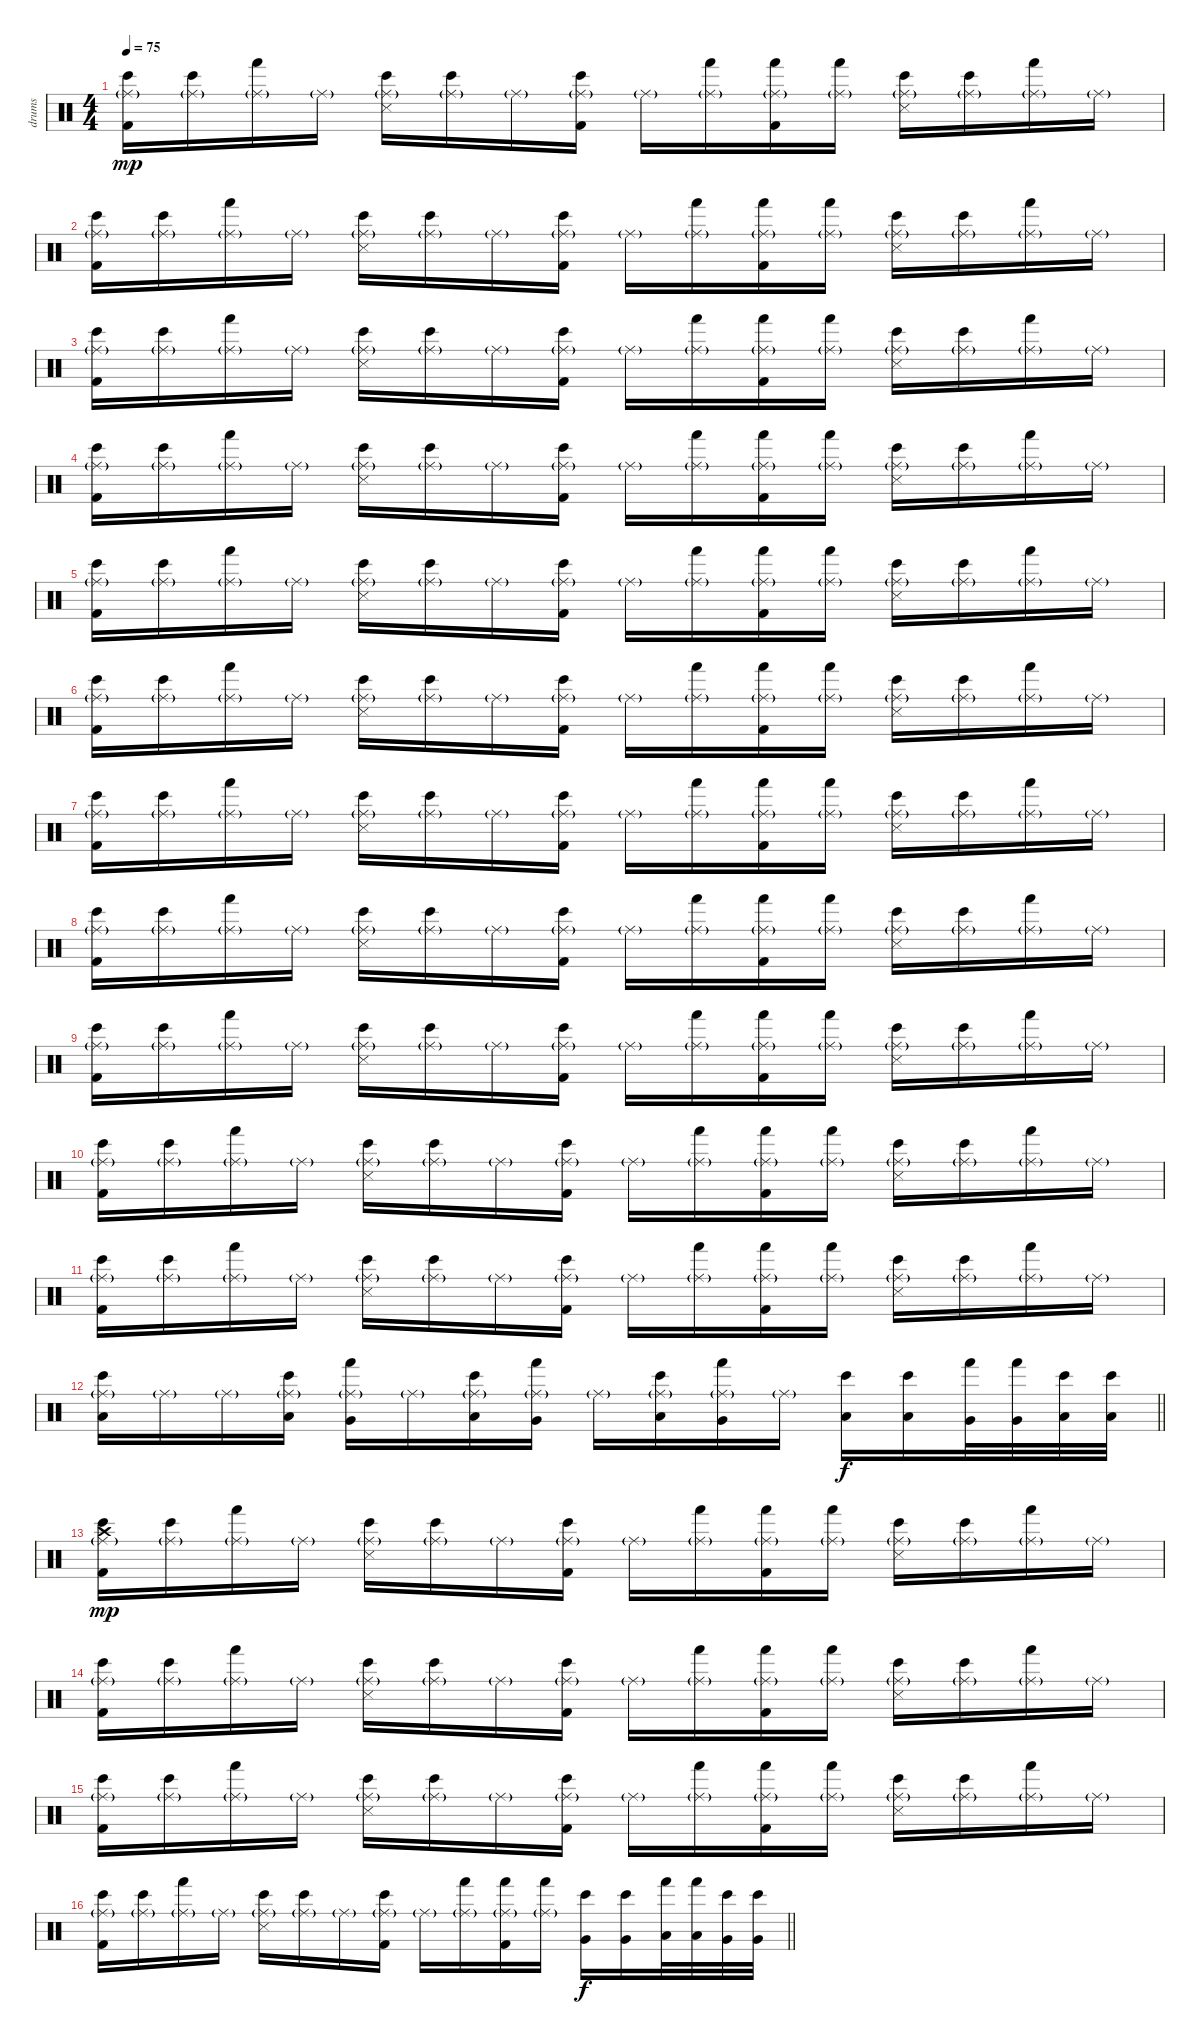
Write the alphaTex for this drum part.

\track ("drums" "drums") {instrument percussion}
\staff {score}
\articulation defaults
\ts (4 4)
\tempo 75
\clef neutral
\ks c
("Kick (hit) 2" "Bongo High (hit)" "Ride (middle)"{g}).16{dy mp} ("Bongo High (hit)" "Ride (middle)"{g}).16 ("Hand (hit)" "Ride (middle)"{g}).16 "Ride (middle)"{g}.16 ("Snare (side stick) 3" "Bongo High (hit)" "Ride (middle)"{g}).16 ("Bongo High (hit)" "Ride (middle)"{g}).16 "Ride (middle)"{g}.16 ("Kick (hit) 2" "Bongo High (hit)" "Ride (middle)"{g}).16 "Ride (middle)"{g}.16 ("Hand (hit)" "Ride (middle)"{g}).16 ("Kick (hit) 2" "Hand (hit)" "Ride (middle)"{g}).16 ("Hand (hit)" "Ride (middle)"{g}).16 ("Snare (side stick) 3" "Bongo High (hit)" "Ride (middle)"{g}).16 ("Bongo High (hit)" "Ride (middle)"{g}).16 ("Hand (hit)" "Ride (middle)"{g}).16 "Ride (middle)"{g}.16 |
("Kick (hit) 2" "Bongo High (hit)" "Ride (middle)"{g}).16 ("Bongo High (hit)" "Ride (middle)"{g}).16 ("Hand (hit)" "Ride (middle)"{g}).16 "Ride (middle)"{g}.16 ("Snare (side stick) 3" "Bongo High (hit)" "Ride (middle)"{g}).16 ("Bongo High (hit)" "Ride (middle)"{g}).16 "Ride (middle)"{g}.16 ("Kick (hit) 2" "Bongo High (hit)" "Ride (middle)"{g}).16 "Ride (middle)"{g}.16 ("Hand (hit)" "Ride (middle)"{g}).16 ("Kick (hit) 2" "Hand (hit)" "Ride (middle)"{g}).16 ("Hand (hit)" "Ride (middle)"{g}).16 ("Snare (side stick) 3" "Bongo High (hit)" "Ride (middle)"{g}).16 ("Bongo High (hit)" "Ride (middle)"{g}).16 ("Hand (hit)" "Ride (middle)"{g}).16 "Ride (middle)"{g}.16 |
("Kick (hit) 2" "Bongo High (hit)" "Ride (middle)"{g}).16 ("Bongo High (hit)" "Ride (middle)"{g}).16 ("Hand (hit)" "Ride (middle)"{g}).16 "Ride (middle)"{g}.16 ("Snare (side stick) 3" "Bongo High (hit)" "Ride (middle)"{g}).16 ("Bongo High (hit)" "Ride (middle)"{g}).16 "Ride (middle)"{g}.16 ("Kick (hit) 2" "Bongo High (hit)" "Ride (middle)"{g}).16 "Ride (middle)"{g}.16 ("Hand (hit)" "Ride (middle)"{g}).16 ("Kick (hit) 2" "Hand (hit)" "Ride (middle)"{g}).16 ("Hand (hit)" "Ride (middle)"{g}).16 ("Snare (side stick) 3" "Bongo High (hit)" "Ride (middle)"{g}).16 ("Bongo High (hit)" "Ride (middle)"{g}).16 ("Hand (hit)" "Ride (middle)"{g}).16 "Ride (middle)"{g}.16 |
("Kick (hit) 2" "Bongo High (hit)" "Ride (middle)"{g}).16 ("Bongo High (hit)" "Ride (middle)"{g}).16 ("Hand (hit)" "Ride (middle)"{g}).16 "Ride (middle)"{g}.16 ("Snare (side stick) 3" "Bongo High (hit)" "Ride (middle)"{g}).16 ("Bongo High (hit)" "Ride (middle)"{g}).16 "Ride (middle)"{g}.16 ("Kick (hit) 2" "Bongo High (hit)" "Ride (middle)"{g}).16 "Ride (middle)"{g}.16 ("Hand (hit)" "Ride (middle)"{g}).16 ("Kick (hit) 2" "Hand (hit)" "Ride (middle)"{g}).16 ("Hand (hit)" "Ride (middle)"{g}).16 ("Snare (side stick) 3" "Bongo High (hit)" "Ride (middle)"{g}).16 ("Bongo High (hit)" "Ride (middle)"{g}).16 ("Hand (hit)" "Ride (middle)"{g}).16 "Ride (middle)"{g}.16 |
("Kick (hit) 2" "Bongo High (hit)" "Ride (middle)"{g}).16 ("Bongo High (hit)" "Ride (middle)"{g}).16 ("Hand (hit)" "Ride (middle)"{g}).16 "Ride (middle)"{g}.16 ("Snare (side stick) 3" "Bongo High (hit)" "Ride (middle)"{g}).16 ("Bongo High (hit)" "Ride (middle)"{g}).16 "Ride (middle)"{g}.16 ("Kick (hit) 2" "Bongo High (hit)" "Ride (middle)"{g}).16 "Ride (middle)"{g}.16 ("Hand (hit)" "Ride (middle)"{g}).16 ("Kick (hit) 2" "Hand (hit)" "Ride (middle)"{g}).16 ("Hand (hit)" "Ride (middle)"{g}).16 ("Snare (side stick) 3" "Bongo High (hit)" "Ride (middle)"{g}).16 ("Bongo High (hit)" "Ride (middle)"{g}).16 ("Hand (hit)" "Ride (middle)"{g}).16 "Ride (middle)"{g}.16 |
("Kick (hit) 2" "Bongo High (hit)" "Ride (middle)"{g}).16 ("Bongo High (hit)" "Ride (middle)"{g}).16 ("Hand (hit)" "Ride (middle)"{g}).16 "Ride (middle)"{g}.16 ("Snare (side stick) 3" "Bongo High (hit)" "Ride (middle)"{g}).16 ("Bongo High (hit)" "Ride (middle)"{g}).16 "Ride (middle)"{g}.16 ("Kick (hit) 2" "Bongo High (hit)" "Ride (middle)"{g}).16 "Ride (middle)"{g}.16 ("Hand (hit)" "Ride (middle)"{g}).16 ("Kick (hit) 2" "Hand (hit)" "Ride (middle)"{g}).16 ("Hand (hit)" "Ride (middle)"{g}).16 ("Snare (side stick) 3" "Bongo High (hit)" "Ride (middle)"{g}).16 ("Bongo High (hit)" "Ride (middle)"{g}).16 ("Hand (hit)" "Ride (middle)"{g}).16 "Ride (middle)"{g}.16 |
("Kick (hit) 2" "Bongo High (hit)" "Ride (middle)"{g}).16 ("Bongo High (hit)" "Ride (middle)"{g}).16 ("Hand (hit)" "Ride (middle)"{g}).16 "Ride (middle)"{g}.16 ("Snare (side stick) 3" "Bongo High (hit)" "Ride (middle)"{g}).16 ("Bongo High (hit)" "Ride (middle)"{g}).16 "Ride (middle)"{g}.16 ("Kick (hit) 2" "Bongo High (hit)" "Ride (middle)"{g}).16 "Ride (middle)"{g}.16 ("Hand (hit)" "Ride (middle)"{g}).16 ("Kick (hit) 2" "Hand (hit)" "Ride (middle)"{g}).16 ("Hand (hit)" "Ride (middle)"{g}).16 ("Snare (side stick) 3" "Bongo High (hit)" "Ride (middle)"{g}).16 ("Bongo High (hit)" "Ride (middle)"{g}).16 ("Hand (hit)" "Ride (middle)"{g}).16 "Ride (middle)"{g}.16 |
("Kick (hit) 2" "Bongo High (hit)" "Ride (middle)"{g}).16 ("Bongo High (hit)" "Ride (middle)"{g}).16 ("Hand (hit)" "Ride (middle)"{g}).16 "Ride (middle)"{g}.16 ("Snare (side stick) 3" "Bongo High (hit)" "Ride (middle)"{g}).16 ("Bongo High (hit)" "Ride (middle)"{g}).16 "Ride (middle)"{g}.16 ("Kick (hit) 2" "Bongo High (hit)" "Ride (middle)"{g}).16 "Ride (middle)"{g}.16 ("Hand (hit)" "Ride (middle)"{g}).16 ("Kick (hit) 2" "Hand (hit)" "Ride (middle)"{g}).16 ("Hand (hit)" "Ride (middle)"{g}).16 ("Snare (side stick) 3" "Bongo High (hit)" "Ride (middle)"{g}).16 ("Bongo High (hit)" "Ride (middle)"{g}).16 ("Hand (hit)" "Ride (middle)"{g}).16 "Ride (middle)"{g}.16 |
("Kick (hit) 2" "Bongo High (hit)" "Ride (middle)"{g}).16 ("Bongo High (hit)" "Ride (middle)"{g}).16 ("Hand (hit)" "Ride (middle)"{g}).16 "Ride (middle)"{g}.16 ("Snare (side stick) 3" "Bongo High (hit)" "Ride (middle)"{g}).16 ("Bongo High (hit)" "Ride (middle)"{g}).16 "Ride (middle)"{g}.16 ("Kick (hit) 2" "Bongo High (hit)" "Ride (middle)"{g}).16 "Ride (middle)"{g}.16 ("Hand (hit)" "Ride (middle)"{g}).16 ("Kick (hit) 2" "Hand (hit)" "Ride (middle)"{g}).16 ("Hand (hit)" "Ride (middle)"{g}).16 ("Snare (side stick) 3" "Bongo High (hit)" "Ride (middle)"{g}).16 ("Bongo High (hit)" "Ride (middle)"{g}).16 ("Hand (hit)" "Ride (middle)"{g}).16 "Ride (middle)"{g}.16 |
("Kick (hit) 2" "Bongo High (hit)" "Ride (middle)"{g}).16 ("Bongo High (hit)" "Ride (middle)"{g}).16 ("Hand (hit)" "Ride (middle)"{g}).16 "Ride (middle)"{g}.16 ("Snare (side stick) 3" "Bongo High (hit)" "Ride (middle)"{g}).16 ("Bongo High (hit)" "Ride (middle)"{g}).16 "Ride (middle)"{g}.16 ("Kick (hit) 2" "Bongo High (hit)" "Ride (middle)"{g}).16 "Ride (middle)"{g}.16 ("Hand (hit)" "Ride (middle)"{g}).16 ("Kick (hit) 2" "Hand (hit)" "Ride (middle)"{g}).16 ("Hand (hit)" "Ride (middle)"{g}).16 ("Snare (side stick) 3" "Bongo High (hit)" "Ride (middle)"{g}).16 ("Bongo High (hit)" "Ride (middle)"{g}).16 ("Hand (hit)" "Ride (middle)"{g}).16 "Ride (middle)"{g}.16 |
("Kick (hit) 2" "Bongo High (hit)" "Ride (middle)"{g}).16 ("Bongo High (hit)" "Ride (middle)"{g}).16 ("Hand (hit)" "Ride (middle)"{g}).16 "Ride (middle)"{g}.16 ("Snare (side stick) 3" "Bongo High (hit)" "Ride (middle)"{g}).16 ("Bongo High (hit)" "Ride (middle)"{g}).16 "Ride (middle)"{g}.16 ("Kick (hit) 2" "Bongo High (hit)" "Ride (middle)"{g}).16 "Ride (middle)"{g}.16 ("Hand (hit)" "Ride (middle)"{g}).16 ("Kick (hit) 2" "Hand (hit)" "Ride (middle)"{g}).16 ("Hand (hit)" "Ride (middle)"{g}).16 ("Snare (side stick) 3" "Bongo High (hit)" "Ride (middle)"{g}).16 ("Bongo High (hit)" "Ride (middle)"{g}).16 ("Hand (hit)" "Ride (middle)"{g}).16 "Ride (middle)"{g}.16 |
\barLineRight lightlight
("Low Floor Tom (hit)" "Bongo High (hit)" "Ride (middle)"{g}).16 "Ride (middle)"{g}.16 "Ride (middle)"{g}.16 ("Low Floor Tom (hit)" "Bongo High (hit)" "Ride (middle)"{g}).16 ("Very Low Tom (hit)" "Hand (hit)" "Ride (middle)"{g}).16 "Ride (middle)"{g}.16 ("Low Floor Tom (hit)" "Bongo High (hit)" "Ride (middle)"{g}).16 ("Very Low Tom (hit)" "Hand (hit)" "Ride (middle)"{g}).16 "Ride (middle)"{g}.16 ("Low Floor Tom (hit)" "Bongo High (hit)" "Ride (middle)"{g}).16 ("Very Low Tom (hit)" "Hand (hit)" "Ride (middle)"{g}).16 "Ride (middle)"{g}.16 ("Low Floor Tom (hit)" "Bongo High (hit)").16{dy f} ("Low Floor Tom (hit)" "Bongo High (hit)").16 ("Very Low Tom (hit)" "Hand (hit)").32 ("Very Low Tom (hit)" "Hand (hit)").32 ("Low Floor Tom (hit)" "Bongo High (hit)").32 ("Low Floor Tom (hit)" "Bongo High (hit)").32 |
("Kick (hit) 2" "Bongo High (hit)" "Ride (middle)"{g} "Crash high (hit)").16{dy mp} ("Bongo High (hit)" "Ride (middle)"{g}).16 ("Hand (hit)" "Ride (middle)"{g}).16 "Ride (middle)"{g}.16 ("Snare (side stick) 3" "Bongo High (hit)" "Ride (middle)"{g}).16 ("Bongo High (hit)" "Ride (middle)"{g}).16 "Ride (middle)"{g}.16 ("Kick (hit) 2" "Bongo High (hit)" "Ride (middle)"{g}).16 "Ride (middle)"{g}.16 ("Hand (hit)" "Ride (middle)"{g}).16 ("Kick (hit) 2" "Hand (hit)" "Ride (middle)"{g}).16 ("Hand (hit)" "Ride (middle)"{g}).16 ("Snare (side stick) 3" "Bongo High (hit)" "Ride (middle)"{g}).16 ("Bongo High (hit)" "Ride (middle)"{g}).16 ("Hand (hit)" "Ride (middle)"{g}).16 "Ride (middle)"{g}.16 |
("Kick (hit) 2" "Bongo High (hit)" "Ride (middle)"{g}).16 ("Bongo High (hit)" "Ride (middle)"{g}).16 ("Hand (hit)" "Ride (middle)"{g}).16 "Ride (middle)"{g}.16 ("Snare (side stick) 3" "Bongo High (hit)" "Ride (middle)"{g}).16 ("Bongo High (hit)" "Ride (middle)"{g}).16 "Ride (middle)"{g}.16 ("Kick (hit) 2" "Bongo High (hit)" "Ride (middle)"{g}).16 "Ride (middle)"{g}.16 ("Hand (hit)" "Ride (middle)"{g}).16 ("Kick (hit) 2" "Hand (hit)" "Ride (middle)"{g}).16 ("Hand (hit)" "Ride (middle)"{g}).16 ("Snare (side stick) 3" "Bongo High (hit)" "Ride (middle)"{g}).16 ("Bongo High (hit)" "Ride (middle)"{g}).16 ("Hand (hit)" "Ride (middle)"{g}).16 "Ride (middle)"{g}.16 |
("Kick (hit) 2" "Bongo High (hit)" "Ride (middle)"{g}).16 ("Bongo High (hit)" "Ride (middle)"{g}).16 ("Hand (hit)" "Ride (middle)"{g}).16 "Ride (middle)"{g}.16 ("Snare (side stick) 3" "Bongo High (hit)" "Ride (middle)"{g}).16 ("Bongo High (hit)" "Ride (middle)"{g}).16 "Ride (middle)"{g}.16 ("Kick (hit) 2" "Bongo High (hit)" "Ride (middle)"{g}).16 "Ride (middle)"{g}.16 ("Hand (hit)" "Ride (middle)"{g}).16 ("Kick (hit) 2" "Hand (hit)" "Ride (middle)"{g}).16 ("Hand (hit)" "Ride (middle)"{g}).16 ("Snare (side stick) 3" "Bongo High (hit)" "Ride (middle)"{g}).16 ("Bongo High (hit)" "Ride (middle)"{g}).16 ("Hand (hit)" "Ride (middle)"{g}).16 "Ride (middle)"{g}.16 |
\barLineRight lightlight
("Kick (hit) 2" "Bongo High (hit)" "Ride (middle)"{g}).16 ("Bongo High (hit)" "Ride (middle)"{g}).16 ("Hand (hit)" "Ride (middle)"{g}).16 "Ride (middle)"{g}.16 ("Snare (side stick) 3" "Bongo High (hit)" "Ride (middle)"{g}).16 ("Bongo High (hit)" "Ride (middle)"{g}).16 "Ride (middle)"{g}.16 ("Kick (hit) 2" "Bongo High (hit)" "Ride (middle)"{g}).16 "Ride (middle)"{g}.16 ("Hand (hit)" "Ride (middle)"{g}).16 ("Kick (hit) 2" "Hand (hit)" "Ride (middle)"{g}).16 ("Hand (hit)" "Ride (middle)"{g}).16 ("Very Low Tom (hit)" "Bongo High (hit)").16{dy f} ("Very Low Tom (hit)" "Bongo High (hit)").16 ("Low Floor Tom (hit)" "Hand (hit)").32 ("Low Floor Tom (hit)" "Hand (hit)").32 ("Very Low Tom (hit)" "Bongo High (hit)").32 ("Very Low Tom (hit)" "Bongo High (hit)").32
